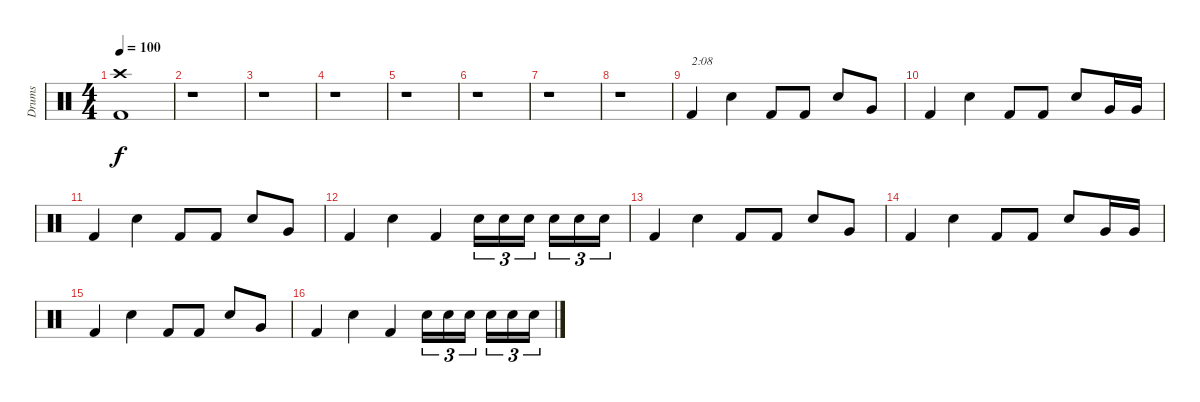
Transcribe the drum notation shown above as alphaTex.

\track ("Drums" "Drums") {instrument percussion}
\staff {score}
\articulation defaults
\ts (4 4)
\tempo 100
\clef neutral
\ks c
("Crash high (hit)" "Kick (hit) 2").1{dy f} |
r.1 |
r.1 |
r.1 |
r.1 |
r.1 |
r.1 |
r.1 |
"Kick (hit) 2".4{txt "2:08"} "Electric Snare (hit)".4 "Kick (hit) 2".8 "Kick (hit) 2".8 "Electric Snare (hit)".8 "Very Low Tom (hit)".8 |
"Kick (hit) 2".4 "Electric Snare (hit)".4 "Kick (hit) 2".8 "Kick (hit) 2".8 "Electric Snare (hit)".8 "Very Low Tom (hit)".16 "Very Low Tom (hit)".16 |
"Kick (hit) 2".4 "Electric Snare (hit)".4 "Kick (hit) 2".8 "Kick (hit) 2".8 "Electric Snare (hit)".8 "Very Low Tom (hit)".8 |
"Kick (hit) 2".4 "Electric Snare (hit)".4 "Kick (hit) 2".4 "Electric Snare (hit)".16{tu (3 2)} "Electric Snare (hit)".16{tu (3 2)} "Electric Snare (hit)".16{tu (3 2)} "Electric Snare (hit)".16{tu (3 2)} "Electric Snare (hit)".16{tu (3 2)} "Electric Snare (hit)".16{tu (3 2)} |
"Kick (hit) 2".4 "Electric Snare (hit)".4 "Kick (hit) 2".8 "Kick (hit) 2".8 "Electric Snare (hit)".8 "Very Low Tom (hit)".8 |
"Kick (hit) 2".4 "Electric Snare (hit)".4 "Kick (hit) 2".8 "Kick (hit) 2".8 "Electric Snare (hit)".8 "Very Low Tom (hit)".16 "Very Low Tom (hit)".16 |
"Kick (hit) 2".4 "Electric Snare (hit)".4 "Kick (hit) 2".8 "Kick (hit) 2".8 "Electric Snare (hit)".8 "Very Low Tom (hit)".8 |
"Kick (hit) 2".4 "Electric Snare (hit)".4 "Kick (hit) 2".4 "Electric Snare (hit)".16{tu (3 2)} "Electric Snare (hit)".16{tu (3 2)} "Electric Snare (hit)".16{tu (3 2)} "Electric Snare (hit)".16{tu (3 2)} "Electric Snare (hit)".16{tu (3 2)} "Electric Snare (hit)".16{tu (3 2)}
